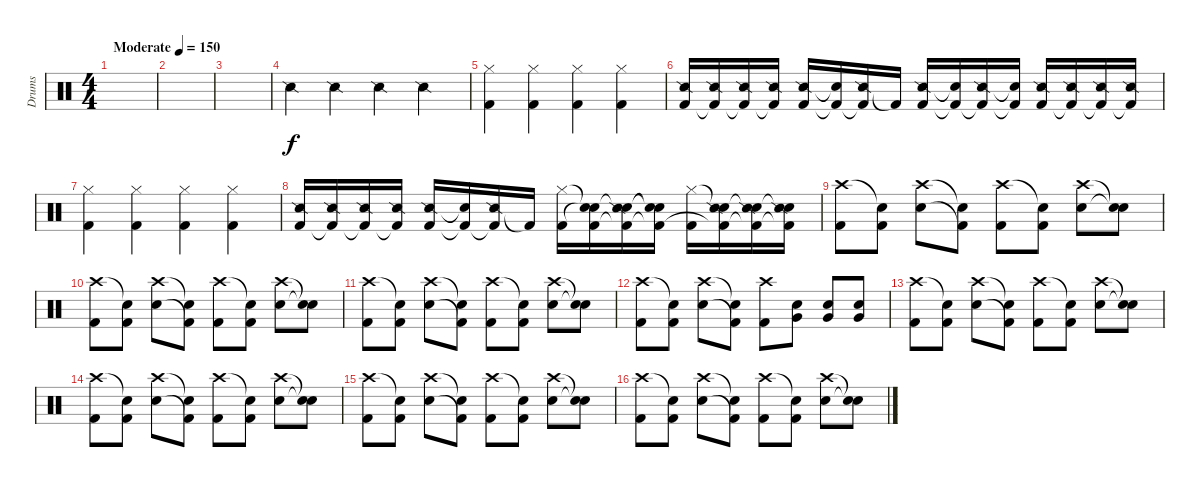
\track ("Drums" "Drums") {instrument percussion bank 127}
\staff {score}
\articulation defaults
\ts (4 4)
\tempo (150 "Moderate")
\clef neutral
\ks c
|
|
|
"Snare (side stick) 2".4 "Snare (side stick) 2".4 "Snare (side stick) 2".4 "Snare (side stick) 2".4 |
("Hi-Hat (closed)" "Kick (hit) 2").4 ("Hi-Hat (closed)" "Kick (hit) 2").4 ("Hi-Hat (closed)" "Kick (hit) 2").4 ("Hi-Hat (closed)" "Kick (hit) 2").4 |
("Snare (side stick) 2" "Kick (hit) 2").16 ("Snare (side stick) 2" "Kick (hit) 2"{t}).16 ("Snare (side stick) 2" "Kick (hit) 2"{t}).16 ("Snare (side stick) 2" "Kick (hit) 2"{t}).16 ("Snare (side stick) 2" "Kick (hit) 2").16 ("Snare (hit)"{t} "Kick (hit) 2"{t}).16 ("Snare (side stick) 2" "Kick (hit) 2"{t}).16 "Kick (hit) 2"{t}.16 ("Snare (side stick) 2" "Kick (hit) 2").16 ("Snare (hit)"{t} "Kick (hit) 2"{t}).16 ("Snare (side stick) 2" "Kick (hit) 2"{t}).16 ("Snare (hit)"{t} "Kick (hit) 2"{t}).16 ("Snare (side stick) 2" "Kick (hit) 2").16 ("Snare (side stick) 2" "Kick (hit) 2"{t}).16 ("Snare (side stick) 2" "Kick (hit) 2"{t}).16 ("Snare (side stick) 2" "Kick (hit) 2"{t}).16 |
("Hi-Hat (closed)" "Kick (hit) 2").4 ("Hi-Hat (closed)" "Kick (hit) 2").4 ("Hi-Hat (closed)" "Kick (hit) 2").4 ("Hi-Hat (closed)" "Kick (hit) 2").4 |
("Snare (side stick) 2" "Kick (hit) 2").16 ("Snare (side stick) 2" "Kick (hit) 2"{t}).16 ("Snare (side stick) 2" "Kick (hit) 2"{t}).16 ("Snare (side stick) 2" "Kick (hit) 2"{t}).16 ("Snare (side stick) 2" "Kick (hit) 2").16 ("Snare (hit)"{t} "Kick (hit) 2"{t}).16 ("Snare (side stick) 2" "Kick (hit) 2"{t}).16 "Kick (hit) 2"{t}.16 ("Hi-Hat (closed)" "Kick (hit) 2").16 ("Snare (hit)"{t} "Snare (hit)"{t} "Kick (hit) 2").16 ("Snare (hit)"{t} "Snare (side stick) 2" "Kick (hit) 2"{t}).16 ("Snare (hit)"{t} "Snare (hit)"{t} "Kick (hit) 2"{t}).16 ("Hi-Hat (closed)" "Kick (hit) 2").16 ("Snare (hit)"{t} "Snare (side stick) 2" "Kick (hit) 2"{t}).16 ("Snare (hit)"{t} "Snare (side stick) 2" "Kick (hit) 2"{t}).16 ("Snare (hit)"{t} "Snare (side stick) 2" "Kick (hit) 2"{t}).16 |
("Crash high (hit)" "Kick (hit) 2").8 ("Snare (hit)"{t} "Kick (hit) 2").8 ("Crash high (hit)" "Electric Snare (hit)").8 ("Snare (hit)"{t} "Kick (hit) 2"{t}).8 ("Crash high (hit)" "Kick (hit) 2").8 ("Snare (hit)"{t} "Kick (hit) 2").8 ("Crash high (hit)" "Electric Snare (hit)").8 ("Snare (hit)"{t} "Snare (hit)"{t}).8 |
("Crash high (hit)" "Kick (hit) 2").8 ("Snare (hit)"{t} "Kick (hit) 2").8 ("Crash high (hit)" "Electric Snare (hit)").8 ("Snare (hit)"{t} "Kick (hit) 2"{t}).8 ("Crash high (hit)" "Kick (hit) 2").8 ("Snare (hit)"{t} "Kick (hit) 2").8 ("Crash high (hit)" "Electric Snare (hit)").8 ("Snare (hit)"{t} "Snare (hit)"{t}).8 |
("Crash high (hit)" "Kick (hit) 2").8 ("Snare (hit)"{t} "Kick (hit) 2").8 ("Crash high (hit)" "Electric Snare (hit)").8 ("Snare (hit)"{t} "Kick (hit) 2"{t}).8 ("Crash high (hit)" "Kick (hit) 2").8 ("Snare (hit)"{t} "Kick (hit) 2").8 ("Crash high (hit)" "Electric Snare (hit)").8 ("Snare (hit)"{t} "Snare (hit)"{t}).8 |
("Crash high (hit)" "Kick (hit) 2").8 ("Snare (hit)"{t} "Kick (hit) 2").8 ("Crash high (hit)" "Electric Snare (hit)").8 ("Snare (hit)"{t} "Kick (hit) 2"{t}).8 ("Crash high (hit)" "Kick (hit) 2").8 ("Very Low Tom (hit)" "Electric Snare (hit)").8 ("Very Low Tom (hit)" "Electric Snare (hit)").8 ("Very Low Tom (hit)" "Electric Snare (hit)").8 |
("Crash high (hit)" "Kick (hit) 2").8 ("Snare (hit)"{t} "Kick (hit) 2").8 ("Crash high (hit)" "Electric Snare (hit)").8 ("Snare (hit)"{t} "Kick (hit) 2"{t}).8 ("Crash high (hit)" "Kick (hit) 2").8 ("Snare (hit)"{t} "Kick (hit) 2").8 ("Crash high (hit)" "Electric Snare (hit)").8 ("Snare (hit)"{t} "Snare (hit)"{t}).8 |
("Crash high (hit)" "Kick (hit) 2").8 ("Snare (hit)"{t} "Kick (hit) 2").8 ("Crash high (hit)" "Electric Snare (hit)").8 ("Snare (hit)"{t} "Kick (hit) 2"{t}).8 ("Crash high (hit)" "Kick (hit) 2").8 ("Snare (hit)"{t} "Kick (hit) 2").8 ("Crash high (hit)" "Electric Snare (hit)").8 ("Snare (hit)"{t} "Snare (hit)"{t}).8 |
("Crash high (hit)" "Kick (hit) 2").8 ("Snare (hit)"{t} "Kick (hit) 2").8 ("Crash high (hit)" "Electric Snare (hit)").8 ("Snare (hit)"{t} "Kick (hit) 2"{t}).8 ("Crash high (hit)" "Kick (hit) 2").8 ("Snare (hit)"{t} "Kick (hit) 2").8 ("Crash high (hit)" "Electric Snare (hit)").8 ("Snare (hit)"{t} "Snare (hit)"{t}).8 |
("Crash high (hit)" "Kick (hit) 2").8 ("Snare (hit)"{t} "Kick (hit) 2").8 ("Crash high (hit)" "Electric Snare (hit)").8 ("Snare (hit)"{t} "Kick (hit) 2"{t}).8 ("Crash high (hit)" "Kick (hit) 2").8 ("Snare (hit)"{t} "Kick (hit) 2").8 ("Crash high (hit)" "Electric Snare (hit)").8 ("Snare (hit)"{t} "Snare (hit)"{t}).8
